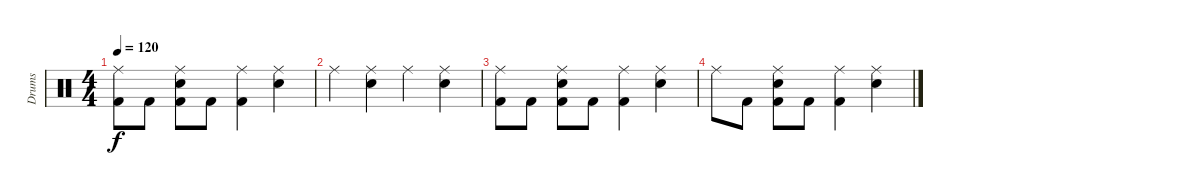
\track ("Drums" "Drums") {instrument percussion}
\staff {score}
\articulation defaults
\ts (4 4)
\tempo 120
\clef neutral
\ks c
("Ride (middle)" "Kick (hit) 2").8{dy f} "Kick (hit) 2".8 ("Ride (middle)" "Electric Snare (hit)" "Kick (hit) 2").8 "Kick (hit) 2".8 ("Ride (middle)" "Kick (hit) 2").4 ("Ride (middle)" "Electric Snare (hit)").4 |
"Ride (middle)".4 ("Ride (middle)" "Electric Snare (hit)").4 "Ride (middle)".4 ("Ride (middle)" "Electric Snare (hit)").4 |
("Ride (middle)" "Kick (hit) 2").8 "Kick (hit) 2".8 ("Ride (middle)" "Electric Snare (hit)" "Kick (hit) 2").8 "Kick (hit) 2".8 ("Ride (middle)" "Kick (hit) 2").4 ("Ride (middle)" "Electric Snare (hit)").4 |
"Ride (middle)".8 "Kick (hit) 2".8 ("Ride (middle)" "Electric Snare (hit)" "Kick (hit) 2").8 "Kick (hit) 2".8 ("Ride (middle)" "Kick (hit) 2").4 ("Ride (middle)" "Electric Snare (hit)").4
